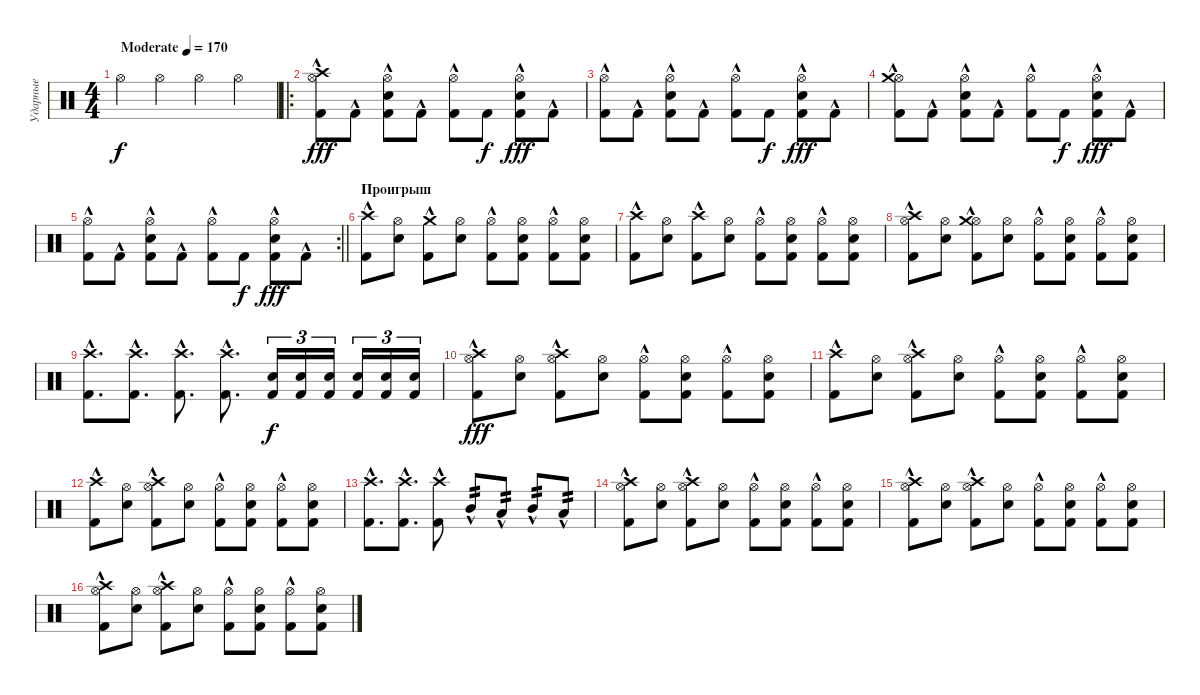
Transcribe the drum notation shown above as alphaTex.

\track ("Ударные" "Ударные") {instrument percussion}
\staff {score}
\articulation defaults
\ts (4 4)
\tempo (170 "Moderate")
\clef neutral
\ks c "Hi-Hat (open)".4{dy f} "Hi-Hat (open)".4 "Hi-Hat (open)".4 "Hi-Hat (open)".4
|
\ro
("Kick (hit) 2"{hac} "Hi-Hat (open)" "Crash high (hit)").8{dy fff} "Kick (hit) 2"{hac}.8 ("Kick (hit) 2"{hac} "Hi-Hat (open)" "Snare (hit) 2").8 "Kick (hit) 2"{hac}.8 ("Kick (hit) 2"{hac} "Hi-Hat (open)").8 "Kick (hit) 2".8{dy f} ("Kick (hit) 2"{hac} "Hi-Hat (open)" "Snare (hit) 2").8{dy fff} "Kick (hit) 2"{hac}.8 |
("Kick (hit) 2"{hac} "Hi-Hat (open)").8 "Kick (hit) 2"{hac}.8 ("Kick (hit) 2"{hac} "Hi-Hat (open)" "Snare (hit) 2").8 "Kick (hit) 2"{hac}.8 ("Kick (hit) 2"{hac} "Hi-Hat (open)").8 "Kick (hit) 2".8{dy f} ("Kick (hit) 2"{hac} "Hi-Hat (open)" "Snare (hit) 2").8{dy fff} "Kick (hit) 2"{hac}.8 |
("Kick (hit) 2"{hac} "Hi-Hat (open)" "Crash medium (hit)").8 "Kick (hit) 2"{hac}.8 ("Kick (hit) 2"{hac} "Hi-Hat (open)" "Snare (hit) 2").8 "Kick (hit) 2"{hac}.8 ("Kick (hit) 2"{hac} "Hi-Hat (open)").8 "Kick (hit) 2".8{dy f} ("Kick (hit) 2"{hac} "Hi-Hat (open)" "Snare (hit) 2").8{dy fff} "Kick (hit) 2"{hac}.8 |
\rc 2
\barLineRight lightlight
("Kick (hit) 2"{hac} "Hi-Hat (open)").8 "Kick (hit) 2"{hac}.8 ("Kick (hit) 2"{hac} "Hi-Hat (open)" "Snare (hit) 2").8 "Kick (hit) 2"{hac}.8 ("Kick (hit) 2"{hac} "Hi-Hat (open)").8 "Kick (hit) 2".8{dy f} ("Kick (hit) 2"{hac} "Hi-Hat (open)" "Snare (hit) 2").8{dy fff} "Kick (hit) 2"{hac}.8 |
\section ("" "Проигрыш")
("Kick (hit) 2"{hac} "Crash high (hit)").8 ("Snare (hit) 2" "Hi-Hat (open)").8 ("Kick (hit) 2"{hac} "Crash medium (hit)").8 ("Snare (hit) 2" "Hi-Hat (open)").8 ("Kick (hit) 2"{hac} "Hi-Hat (open)").8 ("Snare (hit) 2" "Hi-Hat (open)" "Kick (hit) 2").8 ("Kick (hit) 2"{hac} "Hi-Hat (open)").8 ("Snare (hit) 2" "Hi-Hat (open)" "Kick (hit) 2").8 |
("Kick (hit) 2"{hac} "Crash high (hit)").8 ("Snare (hit) 2" "Hi-Hat (open)").8 ("Kick (hit) 2"{hac} "Crash high (hit)").8 ("Snare (hit) 2" "Hi-Hat (open)").8 ("Kick (hit) 2"{hac} "Hi-Hat (open)").8 ("Snare (hit) 2" "Hi-Hat (open)" "Kick (hit) 2").8 ("Kick (hit) 2"{hac} "Hi-Hat (open)").8 ("Snare (hit) 2" "Hi-Hat (open)" "Kick (hit) 2").8 |
("Kick (hit) 2"{hac} "Hi-Hat (open)" "Crash high (hit)").8 ("Snare (hit) 2" "Hi-Hat (open)").8 ("Kick (hit) 2"{hac} "Hi-Hat (open)" "Crash medium (hit)").8 ("Snare (hit) 2" "Hi-Hat (open)").8 ("Kick (hit) 2"{hac} "Hi-Hat (open)").8 ("Snare (hit) 2" "Hi-Hat (open)" "Kick (hit) 2").8 ("Kick (hit) 2"{hac} "Hi-Hat (open)").8 ("Snare (hit) 2" "Hi-Hat (open)" "Kick (hit) 2").8 |
("Kick (hit) 2"{hac} "Crash high (hit)").8{d} ("Kick (hit) 2"{hac} "Crash high (hit)").8{d} ("Kick (hit) 2"{hac} "Crash high (hit)").8{d} ("Kick (hit) 2"{hac} "Crash high (hit)").8{d} ("Kick (hit) 2" "Electric Snare (hit)").16{tu (3 2) dy f} ("Kick (hit) 2" "Electric Snare (hit)").16{tu (3 2)} ("Kick (hit) 2" "Electric Snare (hit)").16{tu (3 2) beam splitsecondary} ("Kick (hit) 2" "Electric Snare (hit)").16{tu (3 2)} ("Kick (hit) 2" "Electric Snare (hit)").16{tu (3 2)} ("Kick (hit) 2" "Electric Snare (hit)").16{tu (3 2)} |
("Kick (hit) 2"{hac} "Hi-Hat (open)" "Crash high (hit)").8{dy fff} ("Snare (hit) 2" "Hi-Hat (open)").8 ("Kick (hit) 2"{hac} "Hi-Hat (open)" "Crash high (hit)").8 ("Snare (hit) 2" "Hi-Hat (open)").8 ("Kick (hit) 2"{hac} "Hi-Hat (open)").8 ("Snare (hit) 2" "Hi-Hat (open)" "Kick (hit) 2").8 ("Kick (hit) 2"{hac} "Hi-Hat (open)").8 ("Snare (hit) 2" "Hi-Hat (open)" "Kick (hit) 2").8 |
("Kick (hit) 2"{hac} "Crash high (hit)").8 ("Snare (hit) 2" "Hi-Hat (open)").8 ("Kick (hit) 2"{hac} "Hi-Hat (open)" "Crash high (hit)").8 ("Snare (hit) 2" "Hi-Hat (open)").8 ("Kick (hit) 2"{hac} "Hi-Hat (open)").8 ("Snare (hit) 2" "Hi-Hat (open)" "Kick (hit) 2").8 ("Kick (hit) 2"{hac} "Hi-Hat (open)").8 ("Snare (hit) 2" "Hi-Hat (open)" "Kick (hit) 2").8 |
("Kick (hit) 2"{hac} "Crash high (hit)").8 ("Snare (hit) 2" "Hi-Hat (open)").8 ("Kick (hit) 2"{hac} "Hi-Hat (open)" "Crash high (hit)").8 ("Snare (hit) 2" "Hi-Hat (open)").8 ("Kick (hit) 2"{hac} "Hi-Hat (open)").8 ("Snare (hit) 2" "Hi-Hat (open)" "Kick (hit) 2").8 ("Kick (hit) 2"{hac} "Hi-Hat (open)").8 ("Snare (hit) 2" "Hi-Hat (open)" "Kick (hit) 2").8 |
("Kick (hit) 2"{hac} "Crash high (hit)").8{d} ("Kick (hit) 2"{hac} "Crash high (hit)").8{d} ("Kick (hit) 2"{hac} "Crash high (hit)").8 "Mid Tom (hit)"{hac}.8{tp 2} "Low Tom (hit)"{hac}.8{tp 2} "Mid Tom (hit)"{hac}.8{tp 2} "Low Tom (hit)"{hac}.8{tp 2} |
("Kick (hit) 2"{hac} "Hi-Hat (open)" "Crash high (hit)").8 ("Snare (hit) 2" "Hi-Hat (open)").8 ("Kick (hit) 2"{hac} "Hi-Hat (open)" "Crash high (hit)").8 ("Snare (hit) 2" "Hi-Hat (open)").8 ("Kick (hit) 2"{hac} "Hi-Hat (open)").8 ("Snare (hit) 2" "Hi-Hat (open)" "Kick (hit) 2").8 ("Kick (hit) 2"{hac} "Hi-Hat (open)").8 ("Snare (hit) 2" "Hi-Hat (open)" "Kick (hit) 2").8 |
("Kick (hit) 2"{hac} "Hi-Hat (open)" "Crash high (hit)").8 ("Snare (hit) 2" "Hi-Hat (open)").8 ("Kick (hit) 2"{hac} "Hi-Hat (open)" "Crash high (hit)").8 ("Snare (hit) 2" "Hi-Hat (open)").8 ("Kick (hit) 2"{hac} "Hi-Hat (open)").8 ("Snare (hit) 2" "Hi-Hat (open)" "Kick (hit) 2").8 ("Kick (hit) 2"{hac} "Hi-Hat (open)").8 ("Snare (hit) 2" "Hi-Hat (open)" "Kick (hit) 2").8 |
("Kick (hit) 2"{hac} "Hi-Hat (open)" "Crash high (hit)").8 ("Snare (hit) 2" "Hi-Hat (open)").8 ("Kick (hit) 2"{hac} "Hi-Hat (open)" "Crash high (hit)").8 ("Snare (hit) 2" "Hi-Hat (open)").8 ("Kick (hit) 2"{hac} "Hi-Hat (open)").8 ("Snare (hit) 2" "Hi-Hat (open)" "Kick (hit) 2").8 ("Kick (hit) 2"{hac} "Hi-Hat (open)").8 ("Snare (hit) 2" "Hi-Hat (open)" "Kick (hit) 2").8
